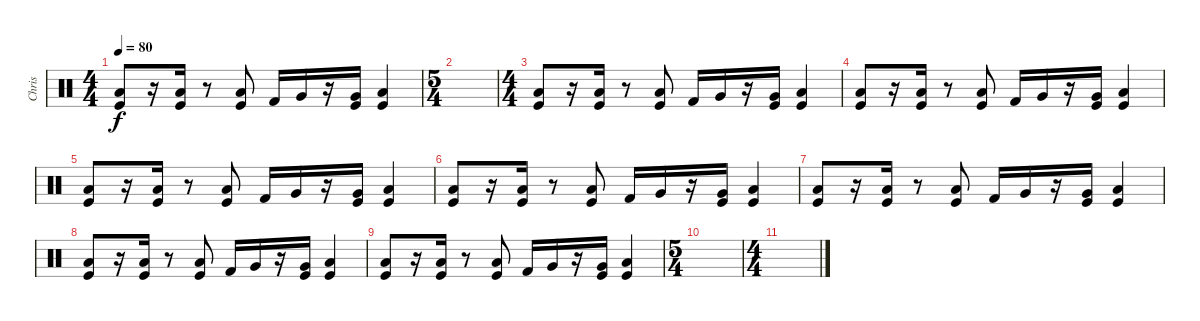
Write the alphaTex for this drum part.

\track ("Chris" "Chris") {instrument percussion}
\staff {score}
\articulation defaults
\ts (4 4)
\tempo 80
\clef neutral
\ks c
("Kick (hit)" "Low Floor Tom (hit)").8{dy f} r.16 ("Kick (hit)" "Low Floor Tom (hit)").16 r.8 ("Kick (hit)" "Low Floor Tom (hit)").8 "Kick (hit) 2".16 "Very Low Tom (hit)".16 r.16 ("Kick (hit)" "Very Low Tom (hit)").16 ("Kick (hit)" "Low Floor Tom (hit)").4 |
\ts (5 4)
|
\ts (4 4)
("Kick (hit)" "Low Floor Tom (hit)").8 r.16 ("Kick (hit)" "Low Floor Tom (hit)").16 r.8 ("Kick (hit)" "Low Floor Tom (hit)").8 "Kick (hit) 2".16 "Very Low Tom (hit)".16 r.16 ("Kick (hit)" "Very Low Tom (hit)").16 ("Kick (hit)" "Low Floor Tom (hit)").4 |
("Kick (hit)" "Low Floor Tom (hit)").8 r.16 ("Kick (hit)" "Low Floor Tom (hit)").16 r.8 ("Kick (hit)" "Low Floor Tom (hit)").8 "Kick (hit) 2".16 "Very Low Tom (hit)".16 r.16 ("Kick (hit)" "Very Low Tom (hit)").16 ("Kick (hit)" "Low Floor Tom (hit)").4 |
("Kick (hit)" "Low Floor Tom (hit)").8 r.16 ("Kick (hit)" "Low Floor Tom (hit)").16 r.8 ("Kick (hit)" "Low Floor Tom (hit)").8 "Kick (hit) 2".16 "Very Low Tom (hit)".16 r.16 ("Kick (hit)" "Very Low Tom (hit)").16 ("Kick (hit)" "Low Floor Tom (hit)").4 |
("Kick (hit)" "Low Floor Tom (hit)").8 r.16 ("Kick (hit)" "Low Floor Tom (hit)").16 r.8 ("Kick (hit)" "Low Floor Tom (hit)").8 "Kick (hit) 2".16 "Very Low Tom (hit)".16 r.16 ("Kick (hit)" "Very Low Tom (hit)").16 ("Kick (hit)" "Low Floor Tom (hit)").4 |
("Kick (hit)" "Low Floor Tom (hit)").8 r.16 ("Kick (hit)" "Low Floor Tom (hit)").16 r.8 ("Kick (hit)" "Low Floor Tom (hit)").8 "Kick (hit) 2".16 "Very Low Tom (hit)".16 r.16 ("Kick (hit)" "Very Low Tom (hit)").16 ("Kick (hit)" "Low Floor Tom (hit)").4 |
("Kick (hit)" "Low Floor Tom (hit)").8 r.16 ("Kick (hit)" "Low Floor Tom (hit)").16 r.8 ("Kick (hit)" "Low Floor Tom (hit)").8 "Kick (hit) 2".16 "Very Low Tom (hit)".16 r.16 ("Kick (hit)" "Very Low Tom (hit)").16 ("Kick (hit)" "Low Floor Tom (hit)").4 |
("Kick (hit)" "Low Floor Tom (hit)").8 r.16 ("Kick (hit)" "Low Floor Tom (hit)").16 r.8 ("Kick (hit)" "Low Floor Tom (hit)").8 "Kick (hit) 2".16 "Very Low Tom (hit)".16 r.16 ("Kick (hit)" "Very Low Tom (hit)").16 ("Kick (hit)" "Low Floor Tom (hit)").4 |
\ts (5 4)
|
\ts (4 4)
